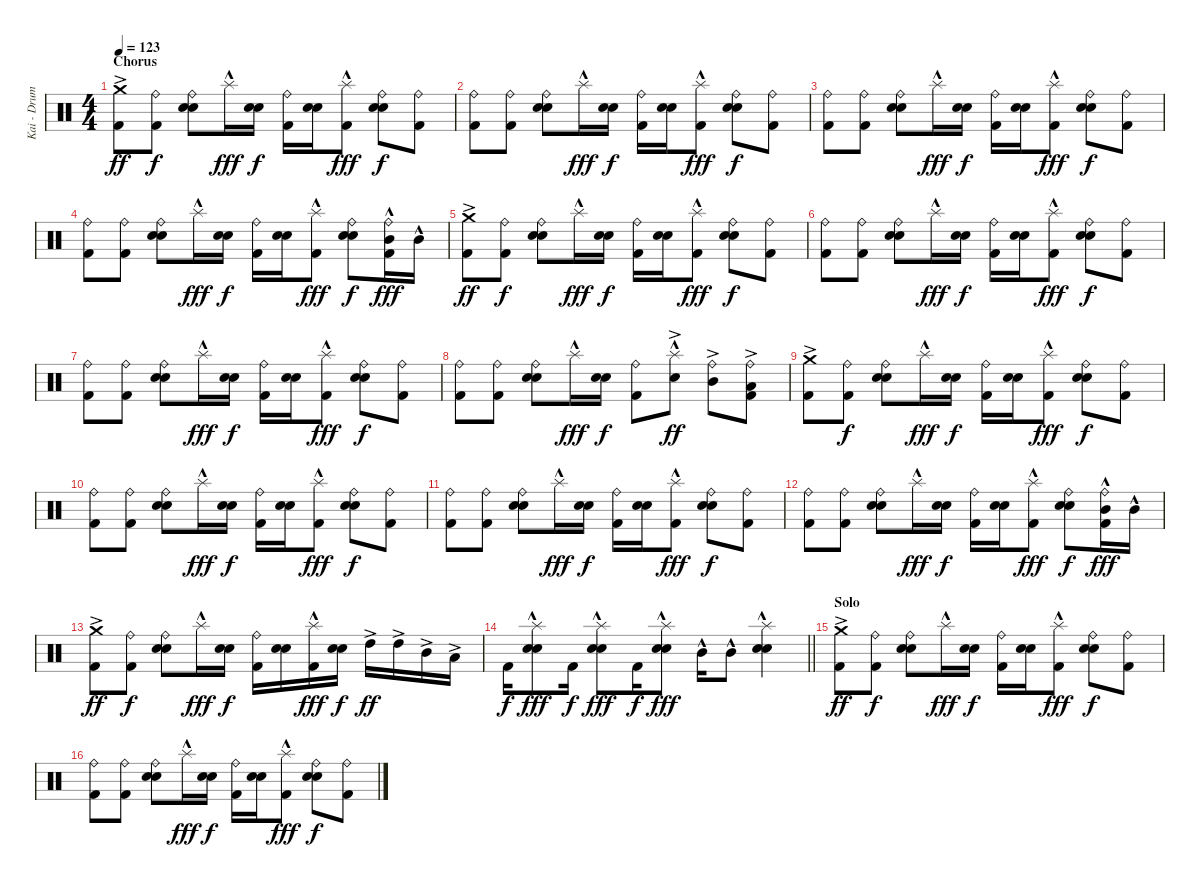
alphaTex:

\track ("Kai - Drums" "Kai - Drum") {instrument percussion}
\staff {score}
\articulation defaults
\ts (4 4)
\section ("" "Chorus")
\tempo 123
\clef neutral
\ks c
("Crash medium (hit)"{ac} "Kick (hit) 2").8{dy ff} ("Ride (bell)" "Kick (hit) 2").8{dy f} ("Ride (bell)" "Electric Snare (hit)" "Snare (hit) 2").8 "Splash (hit)"{hac}.16{dy fff} ("Electric Snare (hit)" "Snare (hit) 2").16{dy f} ("Ride (bell)" "Kick (hit) 2").16 ("Electric Snare (hit)" "Snare (hit) 2").16 ("Splash (hit)"{hac} "Kick (hit) 2").8{dy fff} ("Ride (bell)" "Electric Snare (hit)" "Snare (hit) 2").8{dy f} ("Ride (bell)" "Kick (hit) 2").8 |
("Ride (bell)" "Kick (hit) 2").8 ("Ride (bell)" "Kick (hit) 2").8 ("Ride (bell)" "Electric Snare (hit)" "Snare (hit) 2").8 "Splash (hit)"{hac}.16{dy fff} ("Electric Snare (hit)" "Snare (hit) 2").16{dy f} ("Ride (bell)" "Kick (hit) 2").16 ("Electric Snare (hit)" "Snare (hit) 2").16 ("Splash (hit)"{hac} "Kick (hit) 2").8{dy fff} ("Ride (bell)" "Electric Snare (hit)" "Snare (hit) 2").8{dy f} ("Ride (bell)" "Kick (hit) 2").8 |
("Ride (bell)" "Kick (hit) 2").8 ("Ride (bell)" "Kick (hit) 2").8 ("Ride (bell)" "Electric Snare (hit)" "Snare (hit) 2").8 "Splash (hit)"{hac}.16{dy fff} ("Electric Snare (hit)" "Snare (hit) 2").16{dy f} ("Ride (bell)" "Kick (hit) 2").16 ("Electric Snare (hit)" "Snare (hit) 2").16 ("Splash (hit)"{hac} "Kick (hit) 2").8{dy fff} ("Ride (bell)" "Electric Snare (hit)" "Snare (hit) 2").8{dy f} ("Ride (bell)" "Kick (hit) 2").8 |
("Ride (bell)" "Kick (hit) 2").8 ("Ride (bell)" "Kick (hit) 2").8 ("Ride (bell)" "Electric Snare (hit)" "Snare (hit) 2").8 "Splash (hit)"{hac}.16{dy fff} ("Electric Snare (hit)" "Snare (hit) 2").16{dy f} ("Ride (bell)" "Kick (hit) 2").16 ("Electric Snare (hit)" "Snare (hit) 2").16 ("Splash (hit)"{hac} "Kick (hit) 2").8{dy fff} ("Ride (bell)" "Electric Snare (hit)" "Snare (hit) 2").8{dy f} ("Ride (bell)" "Mid Tom (hit)"{hac} "Kick (hit) 2").16{dy fff} "Mid Tom (hit)"{hac}.16 |
("Crash medium (hit)"{ac} "Kick (hit) 2").8{dy ff} ("Ride (bell)" "Kick (hit) 2").8{dy f} ("Ride (bell)" "Electric Snare (hit)" "Snare (hit) 2").8 "Splash (hit)"{hac}.16{dy fff} ("Electric Snare (hit)" "Snare (hit) 2").16{dy f} ("Ride (bell)" "Kick (hit) 2").16 ("Electric Snare (hit)" "Snare (hit) 2").16 ("Splash (hit)"{hac} "Kick (hit) 2").8{dy fff} ("Ride (bell)" "Electric Snare (hit)" "Snare (hit) 2").8{dy f} ("Ride (bell)" "Kick (hit) 2").8 |
("Ride (bell)" "Kick (hit) 2").8 ("Ride (bell)" "Kick (hit) 2").8 ("Ride (bell)" "Electric Snare (hit)" "Snare (hit) 2").8 "Splash (hit)"{hac}.16{dy fff} ("Electric Snare (hit)" "Snare (hit) 2").16{dy f} ("Ride (bell)" "Kick (hit) 2").16 ("Electric Snare (hit)" "Snare (hit) 2").16 ("Splash (hit)"{hac} "Kick (hit) 2").8{dy fff} ("Ride (bell)" "Electric Snare (hit)" "Snare (hit) 2").8{dy f} ("Ride (bell)" "Kick (hit) 2").8 |
("Ride (bell)" "Kick (hit) 2").8 ("Ride (bell)" "Kick (hit) 2").8 ("Ride (bell)" "Electric Snare (hit)" "Snare (hit) 2").8 "Splash (hit)"{hac}.16{dy fff} ("Electric Snare (hit)" "Snare (hit) 2").16{dy f} ("Ride (bell)" "Kick (hit) 2").16 ("Electric Snare (hit)" "Snare (hit) 2").16 ("Splash (hit)"{hac} "Kick (hit) 2").8{dy fff} ("Ride (bell)" "Electric Snare (hit)" "Snare (hit) 2").8{dy f} ("Ride (bell)" "Kick (hit) 2").8 |
("Ride (bell)" "Kick (hit) 2").8 ("Ride (bell)" "Kick (hit) 2").8 ("Ride (bell)" "Electric Snare (hit)" "Snare (hit) 2").8 "Splash (hit)"{hac}.16{dy fff} ("Electric Snare (hit)" "Snare (hit) 2").16{dy f} ("Ride (bell)" "Kick (hit) 2").8 ("Splash (hit)"{hac} "Electric Snare (hit)"{ac}).8{dy ff} ("Ride (bell)" "Mid Tom (hit)"{ac}).8 ("Ride (bell)" "Low Tom (hit)"{ac} "Kick (hit) 2").8 |
("Crash medium (hit)"{ac} "Kick (hit) 2").8 ("Ride (bell)" "Kick (hit) 2").8{dy f} ("Ride (bell)" "Electric Snare (hit)" "Snare (hit) 2").8 "Splash (hit)"{hac}.16{dy fff} ("Electric Snare (hit)" "Snare (hit) 2").16{dy f} ("Ride (bell)" "Kick (hit) 2").16 ("Electric Snare (hit)" "Snare (hit) 2").16 ("Splash (hit)"{hac} "Kick (hit) 2").8{dy fff} ("Ride (bell)" "Electric Snare (hit)" "Snare (hit) 2").8{dy f} ("Ride (bell)" "Kick (hit) 2").8 |
("Ride (bell)" "Kick (hit) 2").8 ("Ride (bell)" "Kick (hit) 2").8 ("Ride (bell)" "Electric Snare (hit)" "Snare (hit) 2").8 "Splash (hit)"{hac}.16{dy fff} ("Electric Snare (hit)" "Snare (hit) 2").16{dy f} ("Ride (bell)" "Kick (hit) 2").16 ("Electric Snare (hit)" "Snare (hit) 2").16 ("Splash (hit)"{hac} "Kick (hit) 2").8{dy fff} ("Ride (bell)" "Electric Snare (hit)" "Snare (hit) 2").8{dy f} ("Ride (bell)" "Kick (hit) 2").8 |
("Ride (bell)" "Kick (hit) 2").8 ("Ride (bell)" "Kick (hit) 2").8 ("Ride (bell)" "Electric Snare (hit)" "Snare (hit) 2").8 "Splash (hit)"{hac}.16{dy fff} ("Electric Snare (hit)" "Snare (hit) 2").16{dy f} ("Ride (bell)" "Kick (hit) 2").16 ("Electric Snare (hit)" "Snare (hit) 2").16 ("Splash (hit)"{hac} "Kick (hit) 2").8{dy fff} ("Ride (bell)" "Electric Snare (hit)" "Snare (hit) 2").8{dy f} ("Ride (bell)" "Kick (hit) 2").8 |
("Ride (bell)" "Kick (hit) 2").8 ("Ride (bell)" "Kick (hit) 2").8 ("Ride (bell)" "Electric Snare (hit)" "Snare (hit) 2").8 "Splash (hit)"{hac}.16{dy fff} ("Electric Snare (hit)" "Snare (hit) 2").16{dy f} ("Ride (bell)" "Kick (hit) 2").16 ("Electric Snare (hit)" "Snare (hit) 2").16 ("Splash (hit)"{hac} "Kick (hit) 2").8{dy fff} ("Ride (bell)" "Electric Snare (hit)" "Snare (hit) 2").8{dy f} ("Ride (bell)" "Mid Tom (hit)"{hac} "Kick (hit) 2").16{dy fff} "Mid Tom (hit)"{hac}.16 |
("Crash medium (hit)"{ac} "Kick (hit) 2").8{dy ff} ("Ride (bell)" "Kick (hit) 2").8{dy f} ("Ride (bell)" "Electric Snare (hit)" "Snare (hit) 2").8 "Splash (hit)"{hac}.16{dy fff} ("Electric Snare (hit)" "Snare (hit) 2").16{dy f} ("Ride (bell)" "Kick (hit) 2").16 ("Electric Snare (hit)" "Snare (hit) 2").16 ("Splash (hit)"{hac} "Kick (hit) 2").16{dy fff} ("Electric Snare (hit)" "Snare (hit) 2").16{dy f} "High Tom (hit)"{ac}.16{dy ff} "High Tom (hit)"{ac}.16 "Mid Tom (hit)"{ac}.16 "Low Tom (hit)"{ac}.16 |
\barLineRight lightlight "Kick (hit) 2".16{dy f}
("Splash (hit)"{hac} "Electric Snare (hit)" "Snare (hit) 2").8{dy fff} "Kick (hit) 2".16{dy f} ("Splash (hit)"{hac} "Electric Snare (hit)" "Snare (hit) 2").8{dy fff} "Kick (hit) 2".16{dy f} ("Splash (hit)"{hac} "Electric Snare (hit)" "Snare (hit) 2").8{dy fff} "Mid Tom (hit)"{hac}.16 "Mid Tom (hit)"{hac}.8 ("Splash (hit)"{hac} "Electric Snare (hit)" "Snare (hit) 2").4 |
\section ("" "Solo")
("Crash medium (hit)"{ac} "Kick (hit) 2").8{dy ff} ("Ride (bell)" "Kick (hit) 2").8{dy f} ("Ride (bell)" "Electric Snare (hit)" "Snare (hit) 2").8 "Splash (hit)"{hac}.16{dy fff} ("Electric Snare (hit)" "Snare (hit) 2").16{dy f} ("Ride (bell)" "Kick (hit) 2").16 ("Electric Snare (hit)" "Snare (hit) 2").16 ("Splash (hit)"{hac} "Kick (hit) 2").8{dy fff} ("Ride (bell)" "Electric Snare (hit)" "Snare (hit) 2").8{dy f} ("Ride (bell)" "Kick (hit) 2").8 |
("Ride (bell)" "Kick (hit) 2").8 ("Ride (bell)" "Kick (hit) 2").8 ("Ride (bell)" "Electric Snare (hit)" "Snare (hit) 2").8 "Splash (hit)"{hac}.16{dy fff} ("Electric Snare (hit)" "Snare (hit) 2").16{dy f} ("Ride (bell)" "Kick (hit) 2").16 ("Electric Snare (hit)" "Snare (hit) 2").16 ("Splash (hit)"{hac} "Kick (hit) 2").8{dy fff} ("Ride (bell)" "Electric Snare (hit)" "Snare (hit) 2").8{dy f} ("Ride (bell)" "Kick (hit) 2").8
